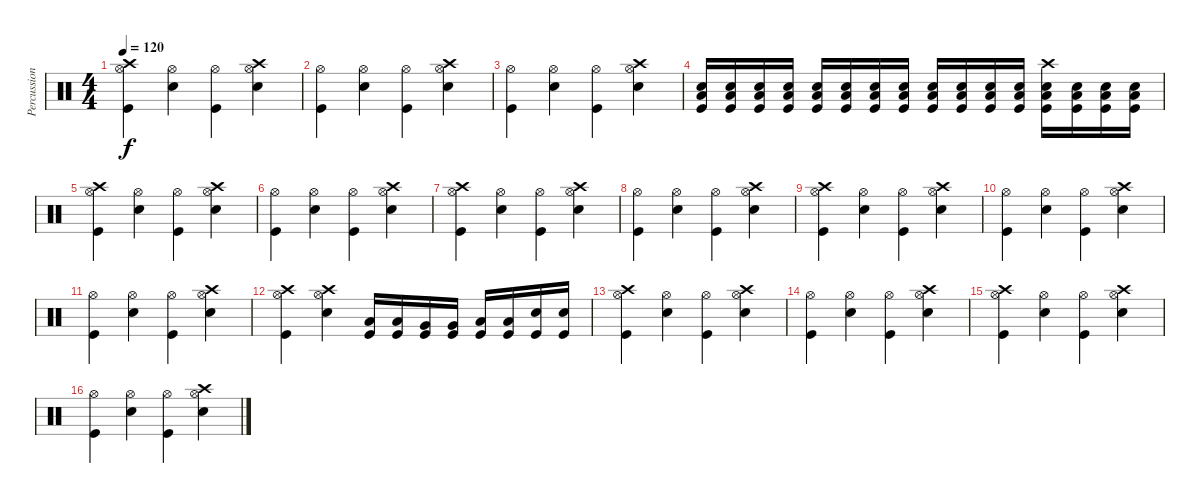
\track ("Percussion" "Percussion") {instrument percussion}
\staff {score}
\articulation defaults
\ts (4 4)
\tempo 120
\clef neutral
\ks c
("Crash high (hit)" "Hi-Hat (open)" "Kick (hit)").4{dy f} ("Hi-Hat (open)" "Snare (hit) 2").4 ("Hi-Hat (open)" "Kick (hit)").4 ("Crash high (hit)" "Hi-Hat (open)" "Snare (hit) 2").4 |
("Hi-Hat (open)" "Kick (hit)").4 ("Hi-Hat (open)" "Snare (hit) 2").4 ("Hi-Hat (open)" "Kick (hit)").4 ("Crash high (hit)" "Hi-Hat (open)" "Snare (hit) 2").4 |
("Hi-Hat (open)" "Kick (hit)").4 ("Hi-Hat (open)" "Snare (hit) 2").4 ("Hi-Hat (open)" "Kick (hit)").4 ("Crash high (hit)" "Hi-Hat (open)" "Snare (hit) 2").4 |
("Low Tom (hit)" "Snare (hit) 2" "Kick (hit)").16 ("Low Tom (hit)" "Snare (hit) 2" "Kick (hit)").16 ("Low Tom (hit)" "Snare (hit) 2" "Kick (hit)").16 ("Low Tom (hit)" "Snare (hit) 2" "Kick (hit)").16 ("Low Tom (hit)" "Snare (hit) 2" "Kick (hit)").16 ("Low Tom (hit)" "Snare (hit) 2" "Kick (hit)").16 ("Low Tom (hit)" "Snare (hit) 2" "Kick (hit)").16 ("Low Tom (hit)" "Snare (hit) 2" "Kick (hit)").16 ("Low Tom (hit)" "Snare (hit) 2" "Kick (hit)").16 ("Low Tom (hit)" "Snare (hit) 2" "Kick (hit)").16 ("Low Tom (hit)" "Snare (hit) 2" "Kick (hit)").16 ("Low Tom (hit)" "Snare (hit) 2" "Kick (hit)").16 ("Crash high (hit)" "Low Tom (hit)" "Snare (hit) 2" "Kick (hit)").16 ("Low Tom (hit)" "Snare (hit) 2" "Kick (hit)").16 ("Low Tom (hit)" "Snare (hit) 2" "Kick (hit)").16 ("Low Tom (hit)" "Snare (hit) 2" "Kick (hit)").16 |
("Crash high (hit)" "Hi-Hat (open)" "Kick (hit)").4 ("Hi-Hat (open)" "Snare (hit) 2").4 ("Hi-Hat (open)" "Kick (hit)").4 ("Crash high (hit)" "Hi-Hat (open)" "Snare (hit) 2").4 |
("Hi-Hat (open)" "Kick (hit)").4 ("Hi-Hat (open)" "Snare (hit) 2").4 ("Hi-Hat (open)" "Kick (hit)").4 ("Crash high (hit)" "Hi-Hat (open)" "Snare (hit) 2").4 |
("Crash high (hit)" "Hi-Hat (open)" "Kick (hit)").4 ("Hi-Hat (open)" "Snare (hit) 2").4 ("Hi-Hat (open)" "Kick (hit)").4 ("Crash high (hit)" "Hi-Hat (open)" "Snare (hit) 2").4 |
("Hi-Hat (open)" "Kick (hit)").4 ("Hi-Hat (open)" "Snare (hit) 2").4 ("Hi-Hat (open)" "Kick (hit)").4 ("Crash high (hit)" "Hi-Hat (open)" "Snare (hit) 2").4 |
("Crash high (hit)" "Hi-Hat (open)" "Kick (hit)").4 ("Hi-Hat (open)" "Snare (hit) 2").4 ("Hi-Hat (open)" "Kick (hit)").4 ("Crash high (hit)" "Hi-Hat (open)" "Snare (hit) 2").4 |
("Hi-Hat (open)" "Kick (hit)").4 ("Hi-Hat (open)" "Snare (hit) 2").4 ("Hi-Hat (open)" "Kick (hit)").4 ("Crash high (hit)" "Hi-Hat (open)" "Snare (hit) 2").4 |
("Hi-Hat (open)" "Kick (hit)").4 ("Hi-Hat (open)" "Snare (hit) 2").4 ("Hi-Hat (open)" "Kick (hit)").4 ("Crash high (hit)" "Hi-Hat (open)" "Snare (hit) 2").4 |
("Crash high (hit)" "Hi-Hat (open)" "Kick (hit)").4 ("Crash high (hit)" "Hi-Hat (open)" "Snare (hit) 2").4 ("Low Tom (hit)" "Kick (hit)").16 ("Low Tom (hit)" "Kick (hit)").16 ("Very Low Tom (hit)" "Kick (hit)").16 ("Very Low Tom (hit)" "Kick (hit)").16 ("Low Floor Tom (hit)" "Kick (hit)").16 ("Low Floor Tom (hit)" "Kick (hit)").16 ("Snare (hit) 2" "Kick (hit)").16 ("Snare (hit) 2" "Kick (hit)").16 |
("Crash high (hit)" "Hi-Hat (open)" "Kick (hit)").4 ("Hi-Hat (open)" "Snare (hit) 2").4 ("Hi-Hat (open)" "Kick (hit)").4 ("Crash high (hit)" "Hi-Hat (open)" "Snare (hit) 2").4 |
("Hi-Hat (open)" "Kick (hit)").4 ("Hi-Hat (open)" "Snare (hit) 2").4 ("Hi-Hat (open)" "Kick (hit)").4 ("Crash high (hit)" "Hi-Hat (open)" "Snare (hit) 2").4 |
("Crash high (hit)" "Hi-Hat (open)" "Kick (hit)").4 ("Hi-Hat (open)" "Snare (hit) 2").4 ("Hi-Hat (open)" "Kick (hit)").4 ("Crash high (hit)" "Hi-Hat (open)" "Snare (hit) 2").4 |
("Hi-Hat (open)" "Kick (hit)").4 ("Hi-Hat (open)" "Snare (hit) 2").4 ("Hi-Hat (open)" "Kick (hit)").4 ("Crash high (hit)" "Hi-Hat (open)" "Snare (hit) 2").4
